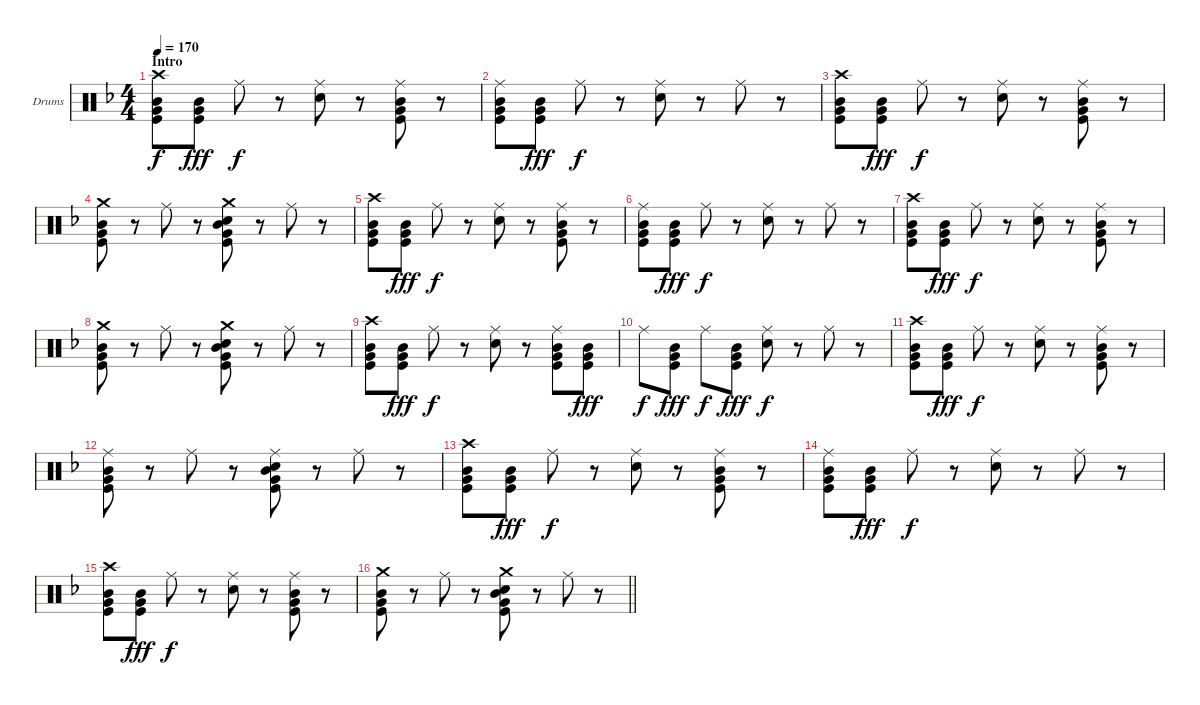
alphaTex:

\bracketExtendMode groupsimilarinstruments
\firstSystemTrackNameOrientation horizontal
\otherSystemsTrackNameOrientation horizontal
\track ("Drumkit" "Drums") {instrument percussion}
\staff {score}
\articulation defaults
\ts (4 4)
\section ("" "Intro")
\tempo 170
\clef neutral
\scale
0.398625
\ks dminor
("Crash high (hit)" "Mid Tom (hit)" "Very Low Tom (hit)" "Kick (hit)").8{dy f} ("Mid Tom (hit)" "Very Low Tom (hit)" "Kick (hit)").8{dy fff} "Ride (middle)".8{dy f} r.8 ("Ride (middle)" "Snare (hit) 2").8 r.8 ("Ride (middle)" "Mid Tom (hit)" "Very Low Tom (hit)" "Kick (hit)").8 r.8 |
\scale
0.300687 ("Ride (middle)" "Mid Tom (hit)" "Very Low Tom (hit)" "Kick (hit)").8 ("Mid Tom (hit)" "Very Low Tom (hit)" "Kick (hit)").8{dy fff} "Ride (middle)".8{dy f} r.8 ("Ride (middle)" "Snare (hit) 2").8 r.8 "Ride (middle)".8 r.8 |
\scale
0.300687 ("Crash high (hit)" "Mid Tom (hit)" "Very Low Tom (hit)" "Kick (hit)").8 ("Mid Tom (hit)" "Very Low Tom (hit)" "Kick (hit)").8{dy fff} "Ride (middle)".8{dy f} r.8 ("Ride (middle)" "Snare (hit) 2").8 r.8 ("Ride (middle)" "Mid Tom (hit)" "Very Low Tom (hit)" "Kick (hit)").8 r.8 |
\scale
0.351852 ("Crash medium (hit)" "Mid Tom (hit)" "Very Low Tom (hit)" "Kick (hit)").8 r.8 "Ride (middle)".8 r.8 ("Crash medium (hit)" "Snare (hit) 2" "Mid Tom (hit)" "Very Low Tom (hit)" "Kick (hit)").8 r.8 "Ride (middle)".8 r.8 |
\scale
0.324074 ("Crash high (hit)" "Mid Tom (hit)" "Very Low Tom (hit)" "Kick (hit)").8 ("Mid Tom (hit)" "Very Low Tom (hit)" "Kick (hit)").8{dy fff} "Ride (middle)".8{dy f} r.8 ("Ride (middle)" "Snare (hit) 2").8 r.8 ("Ride (middle)" "Mid Tom (hit)" "Very Low Tom (hit)" "Kick (hit)").8 r.8 |
\scale
0.324074 ("Ride (middle)" "Mid Tom (hit)" "Very Low Tom (hit)" "Kick (hit)").8 ("Mid Tom (hit)" "Very Low Tom (hit)" "Kick (hit)").8{dy fff} "Ride (middle)".8{dy f} r.8 ("Ride (middle)" "Snare (hit) 2").8 r.8 "Ride (middle)".8 r.8 |
\scale
0.324074 ("Crash high (hit)" "Mid Tom (hit)" "Very Low Tom (hit)" "Kick (hit)").8 ("Mid Tom (hit)" "Very Low Tom (hit)" "Kick (hit)").8{dy fff} "Ride (middle)".8{dy f} r.8 ("Ride (middle)" "Snare (hit) 2").8 r.8 ("Ride (middle)" "Mid Tom (hit)" "Very Low Tom (hit)" "Kick (hit)").8 r.8 |
\scale
0.351852 ("Crash medium (hit)" "Mid Tom (hit)" "Very Low Tom (hit)" "Kick (hit)").8 r.8 "Ride (middle)".8 r.8 ("Crash medium (hit)" "Snare (hit) 2" "Mid Tom (hit)" "Very Low Tom (hit)" "Kick (hit)").8 r.8 "Ride (middle)".8 r.8 |
\scale
0.324074 ("Crash high (hit)" "Mid Tom (hit)" "Very Low Tom (hit)" "Kick (hit)").8 ("Mid Tom (hit)" "Very Low Tom (hit)" "Kick (hit)").8{dy fff} "Ride (middle)".8{dy f} r.8 ("Ride (middle)" "Snare (hit) 2").8 r.8 ("Ride (middle)" "Mid Tom (hit)" "Very Low Tom (hit)" "Kick (hit)").8 ("Mid Tom (hit)" "Very Low Tom (hit)" "Kick (hit)").8{dy fff} |
\scale
0.324074 "Ride (middle)".8{dy f} ("Mid Tom (hit)" "Very Low Tom (hit)" "Kick (hit)").8{dy fff} "Ride (middle)".8{dy f} ("Mid Tom (hit)" "Kick (hit)" "Very Low Tom (hit)").8{dy fff} ("Ride (middle)" "Snare (hit) 2").8{dy f} r.8 "Ride (middle)".8 r.8 |
\scale
0.324074 ("Crash high (hit)" "Mid Tom (hit)" "Very Low Tom (hit)" "Kick (hit)").8 ("Mid Tom (hit)" "Very Low Tom (hit)" "Kick (hit)").8{dy fff} "Ride (middle)".8{dy f} r.8 ("Ride (middle)" "Snare (hit) 2").8 r.8 ("Ride (middle)" "Mid Tom (hit)" "Very Low Tom (hit)" "Kick (hit)").8 r.8 |
\scale
0.351852 ("Ride (middle)" "Mid Tom (hit)" "Very Low Tom (hit)" "Kick (hit)").8 r.8 "Ride (middle)".8 r.8 ("Ride (middle)" "Snare (hit) 2" "Mid Tom (hit)" "Very Low Tom (hit)" "Kick (hit)").8 r.8 "Ride (middle)".8 r.8 |
\scale
0.333333 ("Crash high (hit)" "Mid Tom (hit)" "Very Low Tom (hit)" "Kick (hit)").8 ("Mid Tom (hit)" "Very Low Tom (hit)" "Kick (hit)").8{dy fff} "Ride (middle)".8{dy f} r.8 ("Ride (middle)" "Snare (hit) 2").8 r.8 ("Ride (middle)" "Mid Tom (hit)" "Very Low Tom (hit)" "Kick (hit)").8 r.8 |
\scale
0.333333 ("Ride (middle)" "Mid Tom (hit)" "Very Low Tom (hit)" "Kick (hit)").8 ("Mid Tom (hit)" "Very Low Tom (hit)" "Kick (hit)").8{dy fff} "Ride (middle)".8{dy f} r.8 ("Ride (middle)" "Snare (hit) 2").8 r.8 "Ride (middle)".8 r.8 |
\scale
0.333333 ("Crash high (hit)" "Mid Tom (hit)" "Very Low Tom (hit)" "Kick (hit)").8 ("Mid Tom (hit)" "Very Low Tom (hit)" "Kick (hit)").8{dy fff} "Ride (middle)".8{dy f} r.8 ("Ride (middle)" "Snare (hit) 2").8 r.8 ("Ride (middle)" "Mid Tom (hit)" "Very Low Tom (hit)" "Kick (hit)").8 r.8 |
\scale
0.475
\barLineRight lightlight
("Crash medium (hit)" "Mid Tom (hit)" "Very Low Tom (hit)" "Kick (hit)").8 r.8 "Ride (middle)".8 r.8 ("Crash medium (hit)" "Snare (hit) 2" "Mid Tom (hit)" "Very Low Tom (hit)" "Kick (hit)").8 r.8 "Ride (middle)".8 r.8
